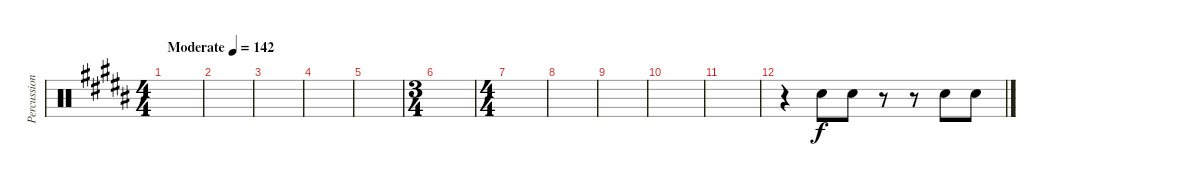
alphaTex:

\track ("Percussion" "Percussion") {instrument percussion}
\staff {score}
\articulation defaults
\ts (4 4)
\tempo (142 "Moderate")
\clef neutral
\ks b
|
|
|
|
|
\ts (3 4)
|
\ts (4 4)
|
|
|
|
|
r.4 "Hand Clap (hit)".8 "Hand Clap (hit)".8 r.8 r.8 "Hand Clap (hit)".8 "Hand Clap (hit)".8
